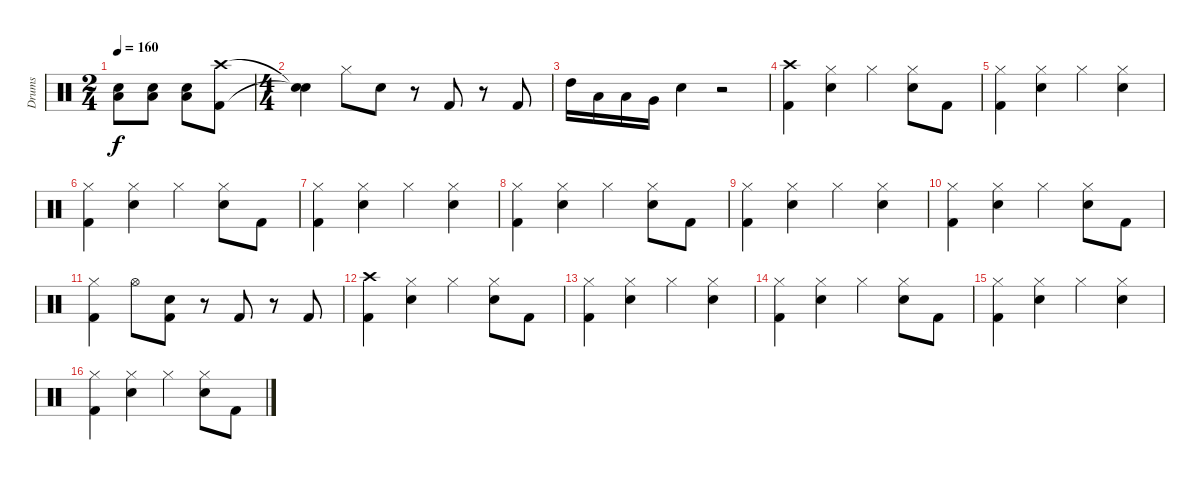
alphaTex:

\track ("Drums" "Drums") {instrument percussion}
\staff {score}
\articulation defaults
\ts (2 4)
\tempo 160
\clef neutral
\ks c
("Low Tom (hit)" "Snare (hit) 2").8{dy f} ("Low Tom (hit)" "Snare (hit) 2").8 ("Low Tom (hit)" "Snare (hit) 2").8 ("Crash high (hit)" "Kick (hit) 2").8 |
\ts (4 4)
("Snare (hit)"{t} "Snare (hit)"{t}).4 "Hi-Hat (closed)".8 "Snare (hit) 2".8 r.8 "Kick (hit) 2".8 r.8 "Kick (hit) 2".8 |
"High Tom (hit)".16 "Low Tom (hit)".16 "Low Tom (hit)".16 "Very Low Tom (hit)".16 "Snare (hit) 2".4 r.2 |
("Crash high (hit)" "Kick (hit) 2").4 ("Hi-Hat (closed)" "Snare (hit) 2").4 "Hi-Hat (closed)".4 ("Hi-Hat (closed)" "Snare (hit) 2").8 "Kick (hit) 2".8 |
("Hi-Hat (closed)" "Kick (hit) 2").4 ("Hi-Hat (closed)" "Snare (hit) 2").4 "Hi-Hat (closed)".4 ("Hi-Hat (closed)" "Snare (hit) 2").4 |
("Hi-Hat (closed)" "Kick (hit) 2").4 ("Hi-Hat (closed)" "Snare (hit) 2").4 "Hi-Hat (closed)".4 ("Hi-Hat (closed)" "Snare (hit) 2").8 "Kick (hit) 2".8 |
("Hi-Hat (closed)" "Kick (hit) 2").4 ("Hi-Hat (closed)" "Snare (hit) 2").4 "Hi-Hat (closed)".4 ("Hi-Hat (closed)" "Snare (hit) 2").4 |
("Hi-Hat (closed)" "Kick (hit) 2").4 ("Hi-Hat (closed)" "Snare (hit) 2").4 "Hi-Hat (closed)".4 ("Hi-Hat (closed)" "Snare (hit) 2").8 "Kick (hit) 2".8 |
("Hi-Hat (closed)" "Kick (hit) 2").4 ("Hi-Hat (closed)" "Snare (hit) 2").4 "Hi-Hat (closed)".4 ("Hi-Hat (closed)" "Snare (hit) 2").4 |
("Hi-Hat (closed)" "Kick (hit) 2").4 ("Hi-Hat (closed)" "Snare (hit) 2").4 "Hi-Hat (closed)".4 ("Hi-Hat (closed)" "Snare (hit) 2").8 "Kick (hit) 2".8 |
("Hi-Hat (closed)" "Kick (hit) 2").4 "Hi-Hat (open)".8 ("Kick (hit) 2" "Snare (hit) 2").8 r.8 "Kick (hit) 2".8 r.8 "Kick (hit) 2".8 |
("Crash high (hit)" "Kick (hit) 2").4 ("Hi-Hat (closed)" "Snare (hit) 2").4 "Hi-Hat (closed)".4 ("Hi-Hat (closed)" "Snare (hit) 2").8 "Kick (hit) 2".8 |
("Hi-Hat (closed)" "Kick (hit) 2").4 ("Hi-Hat (closed)" "Snare (hit) 2").4 "Hi-Hat (closed)".4 ("Hi-Hat (closed)" "Snare (hit) 2").4 |
("Hi-Hat (closed)" "Kick (hit) 2").4 ("Hi-Hat (closed)" "Snare (hit) 2").4 "Hi-Hat (closed)".4 ("Hi-Hat (closed)" "Snare (hit) 2").8 "Kick (hit) 2".8 |
("Hi-Hat (closed)" "Kick (hit) 2").4 ("Hi-Hat (closed)" "Snare (hit) 2").4 "Hi-Hat (closed)".4 ("Hi-Hat (closed)" "Snare (hit) 2").4 |
("Hi-Hat (closed)" "Kick (hit) 2").4 ("Hi-Hat (closed)" "Snare (hit) 2").4 "Hi-Hat (closed)".4 ("Hi-Hat (closed)" "Snare (hit) 2").8 "Kick (hit) 2".8
